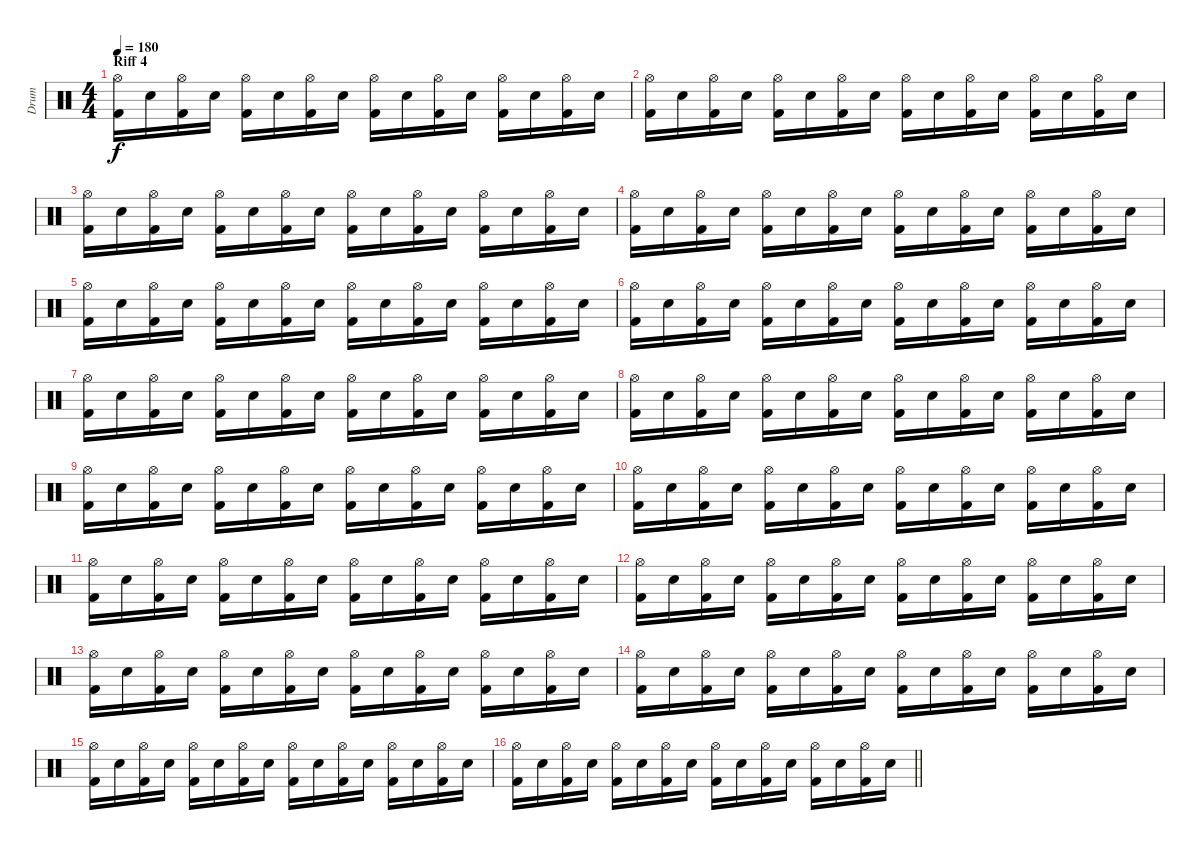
\track ("Drum" "Drum") {instrument percussion}
\staff {score}
\articulation defaults
\ts (4 4)
\section ("" "Riff 4")
\tempo 180
\clef neutral
\ks c
("Hi-Hat (open)" "Kick (hit) 2").16{dy f} "Electric Snare (hit)".16 ("Hi-Hat (open)" "Kick (hit) 2").16 "Electric Snare (hit)".16 ("Hi-Hat (open)" "Kick (hit) 2").16 "Electric Snare (hit)".16 ("Hi-Hat (open)" "Kick (hit) 2").16 "Electric Snare (hit)".16 ("Hi-Hat (open)" "Kick (hit) 2").16 "Electric Snare (hit)".16 ("Hi-Hat (open)" "Kick (hit) 2").16 "Electric Snare (hit)".16 ("Hi-Hat (open)" "Kick (hit) 2").16 "Electric Snare (hit)".16 ("Hi-Hat (open)" "Kick (hit) 2").16 "Electric Snare (hit)".16 |
("Hi-Hat (open)" "Kick (hit) 2").16 "Electric Snare (hit)".16 ("Hi-Hat (open)" "Kick (hit) 2").16 "Electric Snare (hit)".16 ("Hi-Hat (open)" "Kick (hit) 2").16 "Electric Snare (hit)".16 ("Hi-Hat (open)" "Kick (hit) 2").16 "Electric Snare (hit)".16 ("Hi-Hat (open)" "Kick (hit) 2").16 "Electric Snare (hit)".16 ("Hi-Hat (open)" "Kick (hit) 2").16 "Electric Snare (hit)".16 ("Hi-Hat (open)" "Kick (hit) 2").16 "Electric Snare (hit)".16 ("Hi-Hat (open)" "Kick (hit) 2").16 "Electric Snare (hit)".16 |
("Hi-Hat (open)" "Kick (hit) 2").16 "Electric Snare (hit)".16 ("Hi-Hat (open)" "Kick (hit) 2").16 "Electric Snare (hit)".16 ("Hi-Hat (open)" "Kick (hit) 2").16 "Electric Snare (hit)".16 ("Hi-Hat (open)" "Kick (hit) 2").16 "Electric Snare (hit)".16 ("Hi-Hat (open)" "Kick (hit) 2").16 "Electric Snare (hit)".16 ("Hi-Hat (open)" "Kick (hit) 2").16 "Electric Snare (hit)".16 ("Hi-Hat (open)" "Kick (hit) 2").16 "Electric Snare (hit)".16 ("Hi-Hat (open)" "Kick (hit) 2").16 "Electric Snare (hit)".16 |
("Hi-Hat (open)" "Kick (hit) 2").16 "Electric Snare (hit)".16 ("Hi-Hat (open)" "Kick (hit) 2").16 "Electric Snare (hit)".16 ("Hi-Hat (open)" "Kick (hit) 2").16 "Electric Snare (hit)".16 ("Hi-Hat (open)" "Kick (hit) 2").16 "Electric Snare (hit)".16 ("Hi-Hat (open)" "Kick (hit) 2").16 "Electric Snare (hit)".16 ("Hi-Hat (open)" "Kick (hit) 2").16 "Electric Snare (hit)".16 ("Hi-Hat (open)" "Kick (hit) 2").16 "Electric Snare (hit)".16 ("Hi-Hat (open)" "Kick (hit) 2").16 "Electric Snare (hit)".16 |
("Hi-Hat (open)" "Kick (hit) 2").16 "Electric Snare (hit)".16 ("Hi-Hat (open)" "Kick (hit) 2").16 "Electric Snare (hit)".16 ("Hi-Hat (open)" "Kick (hit) 2").16 "Electric Snare (hit)".16 ("Hi-Hat (open)" "Kick (hit) 2").16 "Electric Snare (hit)".16 ("Hi-Hat (open)" "Kick (hit) 2").16 "Electric Snare (hit)".16 ("Hi-Hat (open)" "Kick (hit) 2").16 "Electric Snare (hit)".16 ("Hi-Hat (open)" "Kick (hit) 2").16 "Electric Snare (hit)".16 ("Hi-Hat (open)" "Kick (hit) 2").16 "Electric Snare (hit)".16 |
("Hi-Hat (open)" "Kick (hit) 2").16 "Electric Snare (hit)".16 ("Hi-Hat (open)" "Kick (hit) 2").16 "Electric Snare (hit)".16 ("Hi-Hat (open)" "Kick (hit) 2").16 "Electric Snare (hit)".16 ("Hi-Hat (open)" "Kick (hit) 2").16 "Electric Snare (hit)".16 ("Hi-Hat (open)" "Kick (hit) 2").16 "Electric Snare (hit)".16 ("Hi-Hat (open)" "Kick (hit) 2").16 "Electric Snare (hit)".16 ("Hi-Hat (open)" "Kick (hit) 2").16 "Electric Snare (hit)".16 ("Hi-Hat (open)" "Kick (hit) 2").16 "Electric Snare (hit)".16 |
("Hi-Hat (open)" "Kick (hit) 2").16 "Electric Snare (hit)".16 ("Hi-Hat (open)" "Kick (hit) 2").16 "Electric Snare (hit)".16 ("Hi-Hat (open)" "Kick (hit) 2").16 "Electric Snare (hit)".16 ("Hi-Hat (open)" "Kick (hit) 2").16 "Electric Snare (hit)".16 ("Hi-Hat (open)" "Kick (hit) 2").16 "Electric Snare (hit)".16 ("Hi-Hat (open)" "Kick (hit) 2").16 "Electric Snare (hit)".16 ("Hi-Hat (open)" "Kick (hit) 2").16 "Electric Snare (hit)".16 ("Hi-Hat (open)" "Kick (hit) 2").16 "Electric Snare (hit)".16 |
("Hi-Hat (open)" "Kick (hit) 2").16 "Electric Snare (hit)".16 ("Hi-Hat (open)" "Kick (hit) 2").16 "Electric Snare (hit)".16 ("Hi-Hat (open)" "Kick (hit) 2").16 "Electric Snare (hit)".16 ("Hi-Hat (open)" "Kick (hit) 2").16 "Electric Snare (hit)".16 ("Hi-Hat (open)" "Kick (hit) 2").16 "Electric Snare (hit)".16 ("Hi-Hat (open)" "Kick (hit) 2").16 "Electric Snare (hit)".16 ("Hi-Hat (open)" "Kick (hit) 2").16 "Electric Snare (hit)".16 ("Hi-Hat (open)" "Kick (hit) 2").16 "Electric Snare (hit)".16 |
("Hi-Hat (open)" "Kick (hit) 2").16 "Electric Snare (hit)".16 ("Hi-Hat (open)" "Kick (hit) 2").16 "Electric Snare (hit)".16 ("Hi-Hat (open)" "Kick (hit) 2").16 "Electric Snare (hit)".16 ("Hi-Hat (open)" "Kick (hit) 2").16 "Electric Snare (hit)".16 ("Hi-Hat (open)" "Kick (hit) 2").16 "Electric Snare (hit)".16 ("Hi-Hat (open)" "Kick (hit) 2").16 "Electric Snare (hit)".16 ("Hi-Hat (open)" "Kick (hit) 2").16 "Electric Snare (hit)".16 ("Hi-Hat (open)" "Kick (hit) 2").16 "Electric Snare (hit)".16 |
("Hi-Hat (open)" "Kick (hit) 2").16 "Electric Snare (hit)".16 ("Hi-Hat (open)" "Kick (hit) 2").16 "Electric Snare (hit)".16 ("Hi-Hat (open)" "Kick (hit) 2").16 "Electric Snare (hit)".16 ("Hi-Hat (open)" "Kick (hit) 2").16 "Electric Snare (hit)".16 ("Hi-Hat (open)" "Kick (hit) 2").16 "Electric Snare (hit)".16 ("Hi-Hat (open)" "Kick (hit) 2").16 "Electric Snare (hit)".16 ("Hi-Hat (open)" "Kick (hit) 2").16 "Electric Snare (hit)".16 ("Hi-Hat (open)" "Kick (hit) 2").16 "Electric Snare (hit)".16 |
("Hi-Hat (open)" "Kick (hit) 2").16 "Electric Snare (hit)".16 ("Hi-Hat (open)" "Kick (hit) 2").16 "Electric Snare (hit)".16 ("Hi-Hat (open)" "Kick (hit) 2").16 "Electric Snare (hit)".16 ("Hi-Hat (open)" "Kick (hit) 2").16 "Electric Snare (hit)".16 ("Hi-Hat (open)" "Kick (hit) 2").16 "Electric Snare (hit)".16 ("Hi-Hat (open)" "Kick (hit) 2").16 "Electric Snare (hit)".16 ("Hi-Hat (open)" "Kick (hit) 2").16 "Electric Snare (hit)".16 ("Hi-Hat (open)" "Kick (hit) 2").16 "Electric Snare (hit)".16 |
("Hi-Hat (open)" "Kick (hit) 2").16 "Electric Snare (hit)".16 ("Hi-Hat (open)" "Kick (hit) 2").16 "Electric Snare (hit)".16 ("Hi-Hat (open)" "Kick (hit) 2").16 "Electric Snare (hit)".16 ("Hi-Hat (open)" "Kick (hit) 2").16 "Electric Snare (hit)".16 ("Hi-Hat (open)" "Kick (hit) 2").16 "Electric Snare (hit)".16 ("Hi-Hat (open)" "Kick (hit) 2").16 "Electric Snare (hit)".16 ("Hi-Hat (open)" "Kick (hit) 2").16 "Electric Snare (hit)".16 ("Hi-Hat (open)" "Kick (hit) 2").16 "Electric Snare (hit)".16 |
("Hi-Hat (open)" "Kick (hit) 2").16 "Electric Snare (hit)".16 ("Hi-Hat (open)" "Kick (hit) 2").16 "Electric Snare (hit)".16 ("Hi-Hat (open)" "Kick (hit) 2").16 "Electric Snare (hit)".16 ("Hi-Hat (open)" "Kick (hit) 2").16 "Electric Snare (hit)".16 ("Hi-Hat (open)" "Kick (hit) 2").16 "Electric Snare (hit)".16 ("Hi-Hat (open)" "Kick (hit) 2").16 "Electric Snare (hit)".16 ("Hi-Hat (open)" "Kick (hit) 2").16 "Electric Snare (hit)".16 ("Hi-Hat (open)" "Kick (hit) 2").16 "Electric Snare (hit)".16 |
("Hi-Hat (open)" "Kick (hit) 2").16 "Electric Snare (hit)".16 ("Hi-Hat (open)" "Kick (hit) 2").16 "Electric Snare (hit)".16 ("Hi-Hat (open)" "Kick (hit) 2").16 "Electric Snare (hit)".16 ("Hi-Hat (open)" "Kick (hit) 2").16 "Electric Snare (hit)".16 ("Hi-Hat (open)" "Kick (hit) 2").16 "Electric Snare (hit)".16 ("Hi-Hat (open)" "Kick (hit) 2").16 "Electric Snare (hit)".16 ("Hi-Hat (open)" "Kick (hit) 2").16 "Electric Snare (hit)".16 ("Hi-Hat (open)" "Kick (hit) 2").16 "Electric Snare (hit)".16 |
("Hi-Hat (open)" "Kick (hit) 2").16 "Electric Snare (hit)".16 ("Hi-Hat (open)" "Kick (hit) 2").16 "Electric Snare (hit)".16 ("Hi-Hat (open)" "Kick (hit) 2").16 "Electric Snare (hit)".16 ("Hi-Hat (open)" "Kick (hit) 2").16 "Electric Snare (hit)".16 ("Hi-Hat (open)" "Kick (hit) 2").16 "Electric Snare (hit)".16 ("Hi-Hat (open)" "Kick (hit) 2").16 "Electric Snare (hit)".16 ("Hi-Hat (open)" "Kick (hit) 2").16 "Electric Snare (hit)".16 ("Hi-Hat (open)" "Kick (hit) 2").16 "Electric Snare (hit)".16 |
\barLineRight lightlight
("Hi-Hat (open)" "Kick (hit) 2").16 "Electric Snare (hit)".16 ("Hi-Hat (open)" "Kick (hit) 2").16 "Electric Snare (hit)".16 ("Hi-Hat (open)" "Kick (hit) 2").16 "Electric Snare (hit)".16 ("Hi-Hat (open)" "Kick (hit) 2").16 "Electric Snare (hit)".16 ("Hi-Hat (open)" "Kick (hit) 2").16 "Electric Snare (hit)".16 ("Hi-Hat (open)" "Kick (hit) 2").16 "Electric Snare (hit)".16 ("Hi-Hat (open)" "Kick (hit) 2").16 "Electric Snare (hit)".16 ("Hi-Hat (open)" "Kick (hit) 2").16 "Electric Snare (hit)".16
